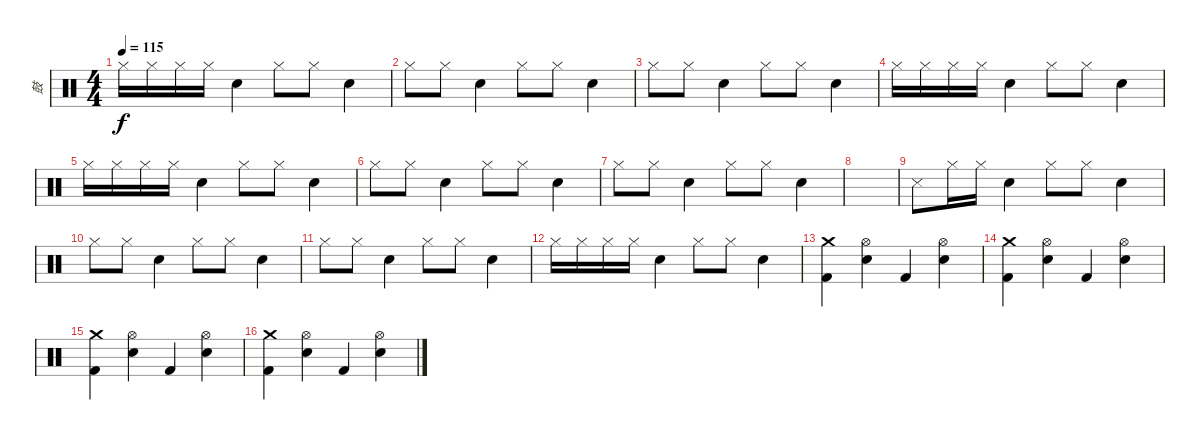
\track ("鼓" "鼓") {instrument percussion}
\staff {score}
\articulation defaults
\ts (4 4)
\tempo 115
\clef neutral
\ks c "Hi-Hat (closed)".16{dy f} "Hi-Hat (closed)".16 "Hi-Hat (closed)".16 "Hi-Hat (closed)".16 "Snare (hit) 2".4 "Hi-Hat (closed)".8 "Hi-Hat (closed)".8 "Snare (hit) 2".4
|
"Hi-Hat (closed)".8 "Hi-Hat (closed)".8 "Snare (hit) 2".4 "Hi-Hat (closed)".8 "Hi-Hat (closed)".8 "Snare (hit) 2".4 |
"Hi-Hat (closed)".8 "Hi-Hat (closed)".8 "Snare (hit) 2".4 "Hi-Hat (closed)".8 "Hi-Hat (closed)".8 "Snare (hit) 2".4 |
"Hi-Hat (closed)".16 "Hi-Hat (closed)".16 "Hi-Hat (closed)".16 "Hi-Hat (closed)".16 "Snare (hit) 2".4 "Hi-Hat (closed)".8 "Hi-Hat (closed)".8 "Snare (hit) 2".4 |
"Hi-Hat (closed)".16 "Hi-Hat (closed)".16 "Hi-Hat (closed)".16 "Hi-Hat (closed)".16 "Snare (hit) 2".4 "Hi-Hat (closed)".8 "Hi-Hat (closed)".8 "Snare (hit) 2".4 |
"Hi-Hat (closed)".8 "Hi-Hat (closed)".8 "Snare (hit) 2".4 "Hi-Hat (closed)".8 "Hi-Hat (closed)".8 "Snare (hit) 2".4 |
"Hi-Hat (closed)".8 "Hi-Hat (closed)".8 "Snare (hit) 2".4 "Hi-Hat (closed)".8 "Hi-Hat (closed)".8 "Snare (hit) 2".4 |
|
"Snare (side stick) 3".8 "Hi-Hat (closed)".16 "Hi-Hat (closed)".16 "Snare (hit) 2".4 "Hi-Hat (closed)".8 "Hi-Hat (closed)".8 "Snare (hit) 2".4 |
"Hi-Hat (closed)".8 "Hi-Hat (closed)".8 "Snare (hit) 2".4 "Hi-Hat (closed)".8 "Hi-Hat (closed)".8 "Snare (hit) 2".4 |
"Hi-Hat (closed)".8 "Hi-Hat (closed)".8 "Snare (hit) 2".4 "Hi-Hat (closed)".8 "Hi-Hat (closed)".8 "Snare (hit) 2".4 |
"Hi-Hat (closed)".16 "Hi-Hat (closed)".16 "Hi-Hat (closed)".16 "Hi-Hat (closed)".16 "Snare (hit) 2".4 "Hi-Hat (closed)".8 "Hi-Hat (closed)".8 "Snare (hit) 2".4 |
("Kick (hit) 2" "Crash medium (hit)").4 ("Snare (hit) 2" "Hi-Hat (open)").4 "Kick (hit) 2".4 ("Snare (hit) 2" "Hi-Hat (open)").4 |
("Kick (hit) 2" "Crash medium (hit)").4 ("Snare (hit) 2" "Hi-Hat (open)").4 "Kick (hit) 2".4 ("Snare (hit) 2" "Hi-Hat (open)").4 |
("Kick (hit) 2" "Crash medium (hit)").4 ("Snare (hit) 2" "Hi-Hat (open)").4 "Kick (hit) 2".4 ("Snare (hit) 2" "Hi-Hat (open)").4 |
("Kick (hit) 2" "Crash medium (hit)").4 ("Snare (hit) 2" "Hi-Hat (open)").4 "Kick (hit) 2".4 ("Snare (hit) 2" "Hi-Hat (open)").4
